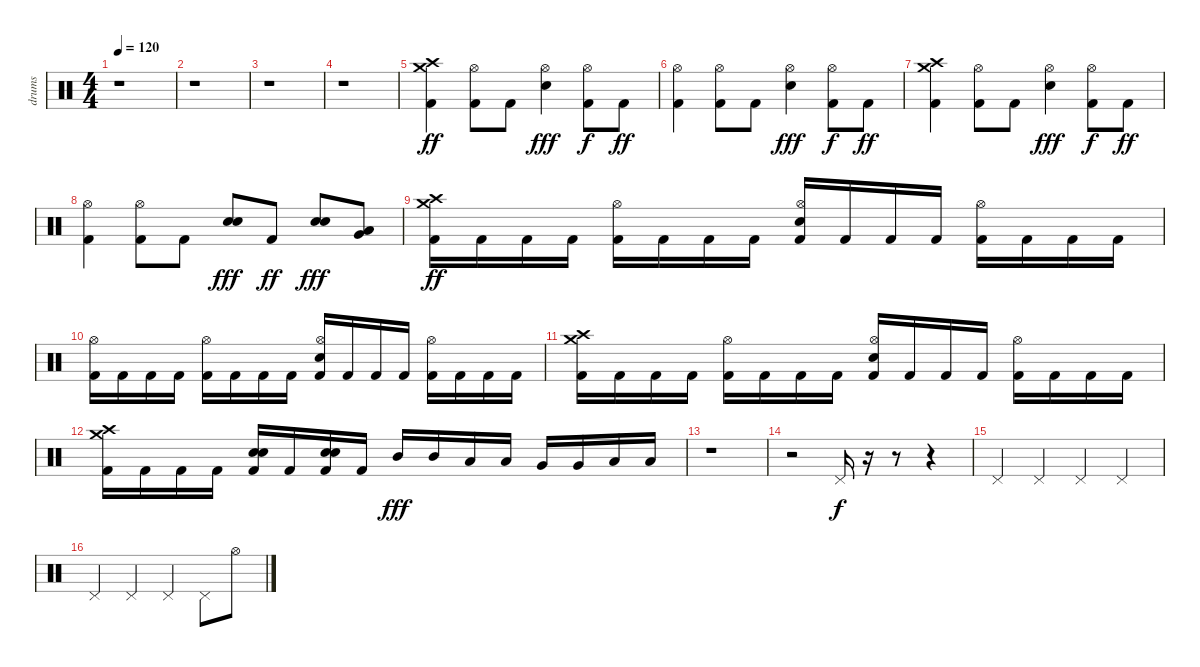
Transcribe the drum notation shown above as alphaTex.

\track ("drums" "drums") {instrument percussion}
\staff {score}
\articulation defaults
\ts (4 4)
\tempo 120
\clef neutral
\ks c
r.1{dy ff} |
r.1 |
r.1 |
r.1 |
("Crash medium (hit)" "Crash high (hit)" "Kick (hit) 2").4 ("Hi-Hat (open)" "Kick (hit) 2").8 "Kick (hit) 2".8 ("Hi-Hat (open)" "Electric Snare (hit)").4{dy fff} ("Hi-Hat (open)" "Kick (hit) 2").8{dy f} "Kick (hit) 2".8{dy ff} |
("Hi-Hat (open)" "Kick (hit) 2").4 ("Hi-Hat (open)" "Kick (hit) 2").8 "Kick (hit) 2".8 ("Hi-Hat (open)" "Electric Snare (hit)").4{dy fff} ("Hi-Hat (open)" "Kick (hit) 2").8{dy f} "Kick (hit) 2".8{dy ff} |
("Crash medium (hit)" "Crash high (hit)" "Kick (hit) 2").4 ("Hi-Hat (open)" "Kick (hit) 2").8 "Kick (hit) 2".8 ("Hi-Hat (open)" "Electric Snare (hit)").4{dy fff} ("Hi-Hat (open)" "Kick (hit) 2").8{dy f} "Kick (hit) 2".8{dy ff} |
("Hi-Hat (open)" "Kick (hit) 2").4 ("Hi-Hat (open)" "Kick (hit) 2").8 "Kick (hit) 2".8 ("Electric Snare (hit)" "Electric Snare (hit)").8{dy fff} "Kick (hit) 2".8{dy ff} ("Electric Snare (hit)" "Electric Snare (hit)").8{dy fff} ("Very Low Tom (hit)" "Low Floor Tom (hit)").8 |
("Crash medium (hit)" "Crash high (hit)" "Kick (hit) 2").16{dy ff} "Kick (hit) 2".16 "Kick (hit) 2".16 "Kick (hit) 2".16 ("Hi-Hat (open)" "Kick (hit) 2").16 "Kick (hit) 2".16 "Kick (hit) 2".16 "Kick (hit) 2".16 ("Hi-Hat (open)" "Electric Snare (hit)" "Kick (hit) 2").16 "Kick (hit) 2".16 "Kick (hit) 2".16 "Kick (hit) 2".16 ("Hi-Hat (open)" "Kick (hit) 2").16 "Kick (hit) 2".16 "Kick (hit) 2".16 "Kick (hit) 2".16 |
("Hi-Hat (open)" "Kick (hit) 2").16 "Kick (hit) 2".16 "Kick (hit) 2".16 "Kick (hit) 2".16 ("Hi-Hat (open)" "Kick (hit) 2").16 "Kick (hit) 2".16 "Kick (hit) 2".16 "Kick (hit) 2".16 ("Hi-Hat (open)" "Electric Snare (hit)" "Kick (hit) 2").16 "Kick (hit) 2".16 "Kick (hit) 2".16 "Kick (hit) 2".16 ("Hi-Hat (open)" "Kick (hit) 2").16 "Kick (hit) 2".16 "Kick (hit) 2".16 "Kick (hit) 2".16 |
("Crash medium (hit)" "Crash high (hit)" "Kick (hit) 2").16 "Kick (hit) 2".16 "Kick (hit) 2".16 "Kick (hit) 2".16 ("Hi-Hat (open)" "Kick (hit) 2").16 "Kick (hit) 2".16 "Kick (hit) 2".16 "Kick (hit) 2".16 ("Hi-Hat (open)" "Electric Snare (hit)" "Kick (hit) 2").16 "Kick (hit) 2".16 "Kick (hit) 2".16 "Kick (hit) 2".16 ("Hi-Hat (open)" "Kick (hit) 2").16 "Kick (hit) 2".16 "Kick (hit) 2".16 "Kick (hit) 2".16 |
("Crash medium (hit)" "Crash high (hit)" "Kick (hit) 2").16 "Kick (hit) 2".16 "Kick (hit) 2".16 "Kick (hit) 2".16 ("Electric Snare (hit)" "Electric Snare (hit)" "Kick (hit) 2").16 "Kick (hit) 2".16 ("Electric Snare (hit)" "Electric Snare (hit)" "Kick (hit) 2").16 "Kick (hit) 2".16 "Mid Tom (hit)".16{dy fff} "Mid Tom (hit)".16 "Low Tom (hit)".16 "Low Tom (hit)".16 "Very Low Tom (hit)".16 "Very Low Tom (hit)".16 "Low Floor Tom (hit)".16 "Low Floor Tom (hit)".16 |
r.1 |
r.2 "Pedal Hi-Hat (hit)".16{dy f} r.16 r.8 r.4 |
"Pedal Hi-Hat (hit)".4 "Pedal Hi-Hat (hit)".4 "Pedal Hi-Hat (hit)".4 "Pedal Hi-Hat (hit)".4 |
"Pedal Hi-Hat (hit)".4 "Pedal Hi-Hat (hit)".4 "Pedal Hi-Hat (hit)".4 "Pedal Hi-Hat (hit)".8 "Hi-Hat (open)".8
